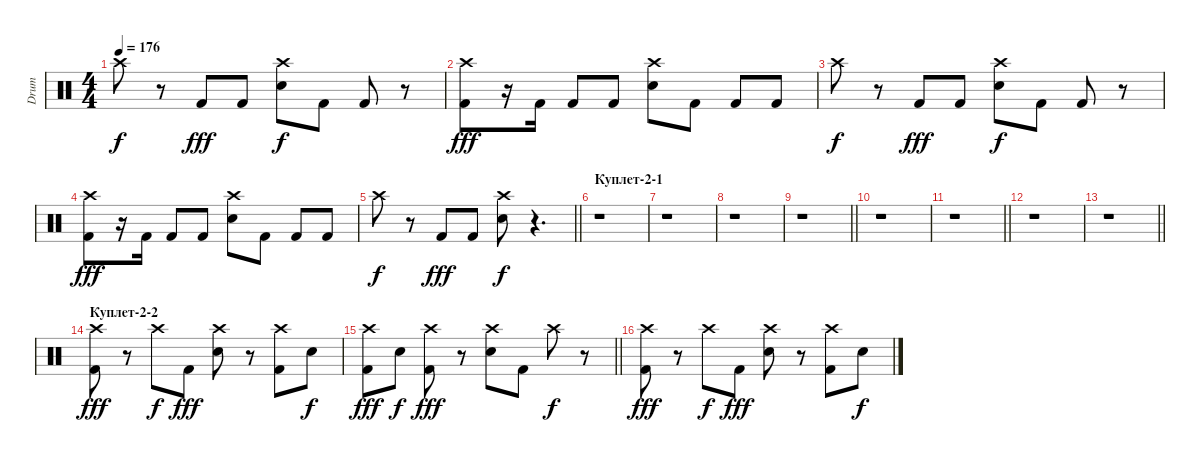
\track ("Drum" "Drum") {instrument percussion}
\staff {score}
\articulation defaults
\ts (4 4)
\tempo 176
\clef neutral
\ks c "Crash high (hit)".8{dy f}
r.8 "Kick (hit) 2".8{dy fff} "Kick (hit) 2".8 ("Crash high (hit)" "Snare (hit) 2").8{dy f} "Kick (hit) 2".8 "Kick (hit) 2".8 r.8 |
("Kick (hit) 2" "Crash high (hit)").8{dy fff} r.16 "Kick (hit) 2".16 "Kick (hit) 2".8 "Kick (hit) 2".8 ("Snare (hit) 2" "Crash high (hit)").8 "Kick (hit) 2".8 "Kick (hit) 2".8 "Kick (hit) 2".8 |
"Crash high (hit)".8{dy f} r.8 "Kick (hit) 2".8{dy fff} "Kick (hit) 2".8 ("Crash high (hit)" "Snare (hit) 2").8{dy f} "Kick (hit) 2".8 "Kick (hit) 2".8 r.8 |
("Kick (hit) 2" "Crash high (hit)").8{dy fff} r.16 "Kick (hit) 2".16 "Kick (hit) 2".8 "Kick (hit) 2".8 ("Snare (hit) 2" "Crash high (hit)").8 "Kick (hit) 2".8 "Kick (hit) 2".8 "Kick (hit) 2".8 |
\barLineRight lightlight "Crash high (hit)".8{dy f}
r.8 "Kick (hit) 2".8{dy fff} "Kick (hit) 2".8 ("Crash high (hit)" "Snare (hit) 2").8{dy f} r.4{d} |
\section ("" "Куплет-2-1")
r.1 |
r.1 |
r.1 |
\barLineRight lightlight
r.1 |
r.1 |
\barLineRight lightlight
r.1 |
r.1 |
\barLineRight lightlight
r.1 |
\section ("" "Куплет-2-2")
("Kick (hit) 2" "Crash high (hit)").8{dy fff} r.8 "Crash high (hit)".8{dy f} "Kick (hit) 2".8{dy fff} ("Snare (hit) 2" "Crash high (hit)").8 r.8 ("Kick (hit) 2" "Crash high (hit)").8 "Electric Snare (hit)".8{dy f} |
\barLineRight lightlight
("Kick (hit) 2" "Crash high (hit)").8{dy fff} "Electric Snare (hit)".8{dy f} ("Kick (hit) 2" "Crash high (hit)").8{dy fff} r.8 ("Snare (hit) 2" "Crash high (hit)").8 "Kick (hit) 2".8 "Crash high (hit)".8{dy f} r.8 |
("Kick (hit) 2" "Crash high (hit)").8{dy fff} r.8 "Crash high (hit)".8{dy f} "Kick (hit) 2".8{dy fff} ("Snare (hit) 2" "Crash high (hit)").8 r.8 ("Kick (hit) 2" "Crash high (hit)").8 "Electric Snare (hit)".8{dy f}
